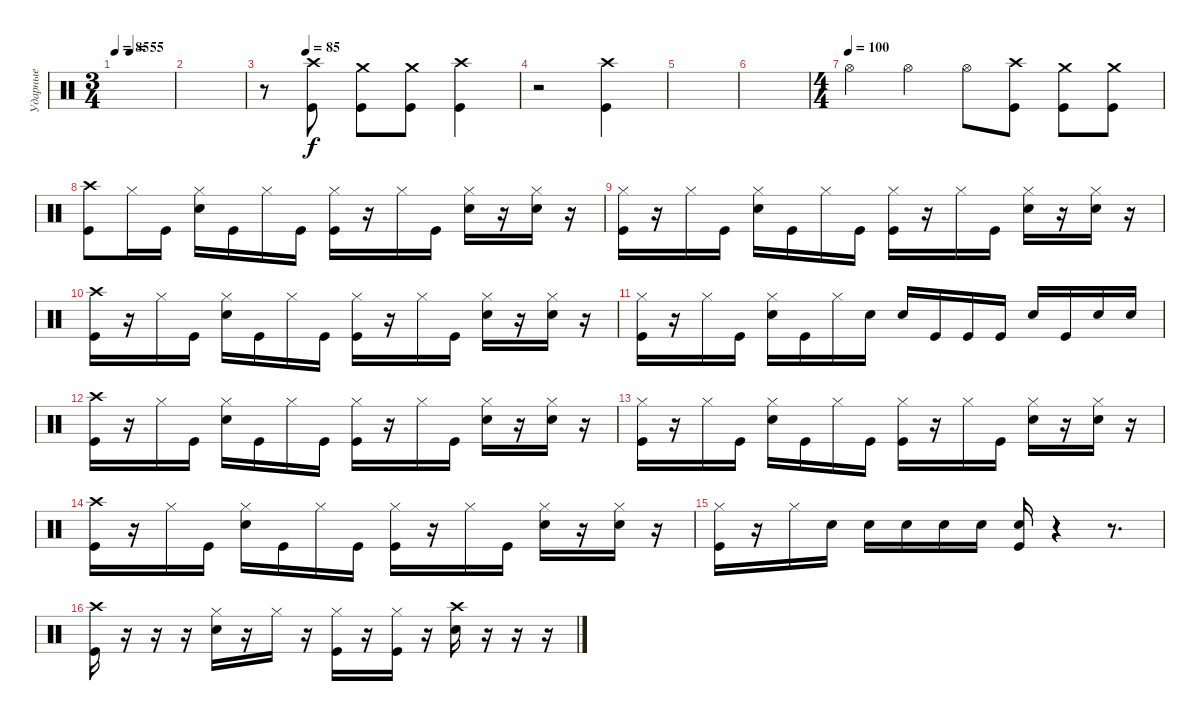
\track ("Ударные" "Ударные") {instrument percussion}
\staff {score}
\articulation defaults
\ts (3 4)
\tempo 85
\tempo (55 0.25)
\clef neutral
\ks c
|
|
\tempo (85 0.16666666666666666)
r.8 ("Crash high (hit)" "Kick (hit)").8 ("Crash medium (hit)" "Kick (hit)").8 ("Crash medium (hit)" "Kick (hit)").8 ("Crash high (hit)" "Kick (hit)").4 |
r.2 ("Crash high (hit)" "Kick (hit)").4 |
|
|
\ts (4 4)
\tempo (100)
"Hi-Hat (open)".4 "Hi-Hat (open)".4 "Hi-Hat (open)".8 ("Crash high (hit)" "Kick (hit)").8 ("Crash medium (hit)" "Kick (hit)").8 ("Crash medium (hit)" "Kick (hit)").8 |
("Crash high (hit)" "Kick (hit)").8 "Hi-Hat (closed)".16 "Kick (hit)".16 ("Hi-Hat (closed)" "Snare (hit) 2").16 "Kick (hit)".16 "Hi-Hat (closed)".16 "Kick (hit)".16 ("Hi-Hat (closed)" "Kick (hit)").16 r.16 "Hi-Hat (closed)".16 "Kick (hit)".16 ("Hi-Hat (closed)" "Snare (hit) 2").16 r.16 ("Hi-Hat (closed)" "Snare (hit) 2").16 r.16 |
("Hi-Hat (closed)" "Kick (hit)").16 r.16 "Hi-Hat (closed)".16 "Kick (hit)".16 ("Hi-Hat (closed)" "Snare (hit) 2").16 "Kick (hit)".16 "Hi-Hat (closed)".16 "Kick (hit)".16 ("Hi-Hat (closed)" "Kick (hit)").16 r.16 "Hi-Hat (closed)".16 "Kick (hit)".16 ("Hi-Hat (closed)" "Snare (hit) 2").16 r.16 ("Hi-Hat (closed)" "Snare (hit) 2").16 r.16 |
("Crash high (hit)" "Kick (hit)").16 r.16 "Hi-Hat (closed)".16 "Kick (hit)".16 ("Hi-Hat (closed)" "Snare (hit) 2").16 "Kick (hit)".16 "Hi-Hat (closed)".16 "Kick (hit)".16 ("Hi-Hat (closed)" "Kick (hit)").16 r.16 "Hi-Hat (closed)".16 "Kick (hit)".16 ("Hi-Hat (closed)" "Snare (hit) 2").16 r.16 ("Hi-Hat (closed)" "Snare (hit) 2").16 r.16 |
("Hi-Hat (closed)" "Kick (hit)").16 r.16 "Hi-Hat (closed)".16 "Kick (hit)".16 ("Hi-Hat (closed)" "Snare (hit) 2").16 "Kick (hit)".16 "Hi-Hat (closed)".16 "Snare (hit) 2".16 "Snare (hit) 2".16 "Kick (hit)".16 "Kick (hit)".16 "Kick (hit)".16 "Snare (hit) 2".16 "Kick (hit)".16 "Snare (hit) 2".16 "Snare (hit) 2".16 |
("Crash high (hit)" "Kick (hit)").16 r.16 "Hi-Hat (closed)".16 "Kick (hit)".16 ("Hi-Hat (closed)" "Snare (hit) 2").16 "Kick (hit)".16 "Hi-Hat (closed)".16 "Kick (hit)".16 ("Hi-Hat (closed)" "Kick (hit)").16 r.16 "Hi-Hat (closed)".16 "Kick (hit)".16 ("Hi-Hat (closed)" "Snare (hit) 2").16 r.16 ("Hi-Hat (closed)" "Snare (hit) 2").16 r.16 |
("Hi-Hat (closed)" "Kick (hit)").16 r.16 "Hi-Hat (closed)".16 "Kick (hit)".16 ("Hi-Hat (closed)" "Snare (hit) 2").16 "Kick (hit)".16 "Hi-Hat (closed)".16 "Kick (hit)".16 ("Hi-Hat (closed)" "Kick (hit)").16 r.16 "Hi-Hat (closed)".16 "Kick (hit)".16 ("Hi-Hat (closed)" "Snare (hit) 2").16 r.16 ("Hi-Hat (closed)" "Snare (hit) 2").16 r.16 |
("Crash high (hit)" "Kick (hit)").16 r.16 "Hi-Hat (closed)".16 "Kick (hit)".16 ("Hi-Hat (closed)" "Snare (hit) 2").16 "Kick (hit)".16 "Hi-Hat (closed)".16 "Kick (hit)".16 ("Hi-Hat (closed)" "Kick (hit)").16 r.16 "Hi-Hat (closed)".16 "Kick (hit)".16 ("Hi-Hat (closed)" "Snare (hit) 2").16 r.16 ("Hi-Hat (closed)" "Snare (hit) 2").16 r.16 |
("Hi-Hat (closed)" "Kick (hit)").16 r.16 "Hi-Hat (closed)".16 "Snare (hit) 2".16 "Snare (hit) 2".16 "Snare (hit) 2".16 "Snare (hit) 2".16 "Snare (hit) 2".16 ("Snare (hit) 2" "Kick (hit)").16 r.4 r.8{d} |
("Crash high (hit)" "Kick (hit)").16 r.16 r.16 r.16 ("Hi-Hat (closed)" "Snare (hit) 2").16 r.16 "Hi-Hat (closed)".16 r.16 ("Hi-Hat (closed)" "Kick (hit)").16 r.16 ("Hi-Hat (closed)" "Kick (hit)").16 r.16 ("Crash high (hit)" "Snare (hit) 2").16 r.16 r.16 r.16
